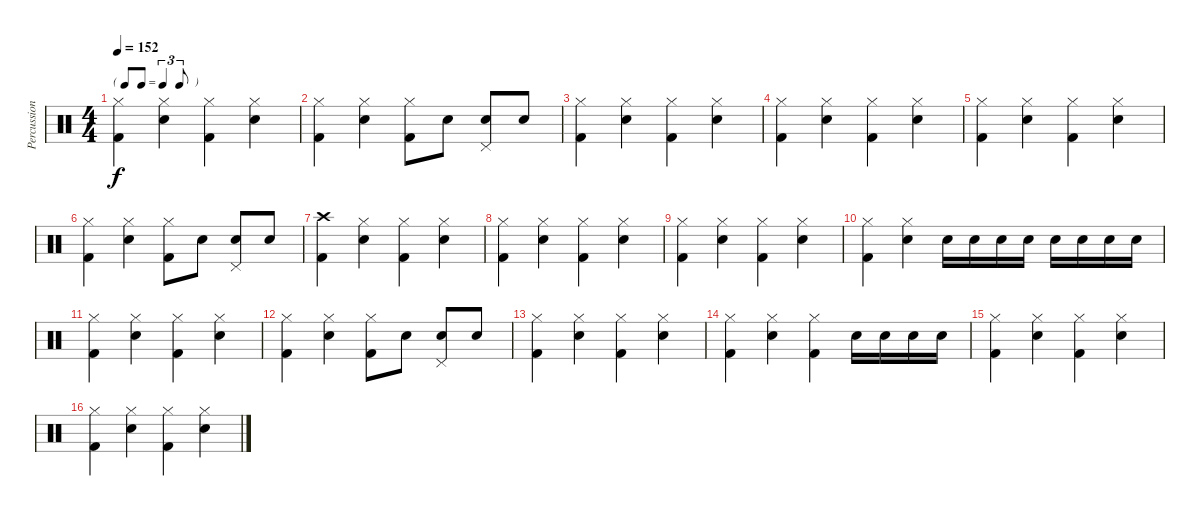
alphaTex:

\track ("Percussion" "Percussion") {instrument percussion}
\staff {score}
\articulation defaults
\ts (4 4)
\tf triplet8th
\tempo 152
\clef neutral
\ks c
("Hi-Hat (closed)" "Kick (hit) 2").4{dy f} ("Hi-Hat (closed)" "Snare (hit) 2").4 ("Hi-Hat (closed)" "Kick (hit) 2").4 ("Hi-Hat (closed)" "Snare (hit) 2").4 |
("Hi-Hat (closed)" "Kick (hit) 2").4 ("Hi-Hat (closed)" "Snare (hit) 2").4 ("Hi-Hat (closed)" "Kick (hit) 2").8 "Snare (hit) 2".8 ("Snare (hit) 2" "Pedal Hi-Hat (hit)").8 "Snare (hit) 2".8 |
("Hi-Hat (closed)" "Kick (hit) 2").4 ("Hi-Hat (closed)" "Snare (hit) 2").4 ("Hi-Hat (closed)" "Kick (hit) 2").4 ("Hi-Hat (closed)" "Snare (hit) 2").4 |
("Hi-Hat (closed)" "Kick (hit) 2").4 ("Hi-Hat (closed)" "Snare (hit) 2").4 ("Hi-Hat (closed)" "Kick (hit) 2").4 ("Hi-Hat (closed)" "Snare (hit) 2").4 |
("Hi-Hat (closed)" "Kick (hit) 2").4 ("Hi-Hat (closed)" "Snare (hit) 2").4 ("Hi-Hat (closed)" "Kick (hit) 2").4 ("Hi-Hat (closed)" "Snare (hit) 2").4 |
("Hi-Hat (closed)" "Kick (hit) 2").4 ("Hi-Hat (closed)" "Snare (hit) 2").4 ("Hi-Hat (closed)" "Kick (hit) 2").8 "Snare (hit) 2".8 ("Snare (hit) 2" "Pedal Hi-Hat (hit)").8 "Snare (hit) 2".8 |
("Crash high (hit)" "Kick (hit) 2").4 ("Hi-Hat (closed)" "Snare (hit) 2").4 ("Hi-Hat (closed)" "Kick (hit) 2").4 ("Hi-Hat (closed)" "Snare (hit) 2").4 |
("Hi-Hat (closed)" "Kick (hit) 2").4 ("Hi-Hat (closed)" "Snare (hit) 2").4 ("Hi-Hat (closed)" "Kick (hit) 2").4 ("Hi-Hat (closed)" "Snare (hit) 2").4 |
("Hi-Hat (closed)" "Kick (hit) 2").4 ("Hi-Hat (closed)" "Snare (hit) 2").4 ("Hi-Hat (closed)" "Kick (hit) 2").4 ("Hi-Hat (closed)" "Snare (hit) 2").4 |
("Hi-Hat (closed)" "Kick (hit) 2").4 ("Hi-Hat (closed)" "Snare (hit) 2").4 "Snare (hit) 2".16 "Snare (hit) 2".16 "Snare (hit) 2".16 "Snare (hit) 2".16 "Snare (hit) 2".16 "Snare (hit) 2".16 "Snare (hit) 2".16 "Snare (hit) 2".16 |
("Hi-Hat (closed)" "Kick (hit) 2").4 ("Hi-Hat (closed)" "Snare (hit) 2").4 ("Hi-Hat (closed)" "Kick (hit) 2").4 ("Hi-Hat (closed)" "Snare (hit) 2").4 |
("Hi-Hat (closed)" "Kick (hit) 2").4 ("Hi-Hat (closed)" "Snare (hit) 2").4 ("Hi-Hat (closed)" "Kick (hit) 2").8 "Snare (hit) 2".8 ("Snare (hit) 2" "Pedal Hi-Hat (hit)").8 "Snare (hit) 2".8 |
("Hi-Hat (closed)" "Kick (hit) 2").4 ("Hi-Hat (closed)" "Snare (hit) 2").4 ("Hi-Hat (closed)" "Kick (hit) 2").4 ("Hi-Hat (closed)" "Snare (hit) 2").4 |
("Hi-Hat (closed)" "Kick (hit) 2").4 ("Hi-Hat (closed)" "Snare (hit) 2").4 ("Hi-Hat (closed)" "Kick (hit) 2").4 "Snare (hit) 2".16 "Snare (hit) 2".16 "Snare (hit) 2".16 "Snare (hit) 2".16 |
("Hi-Hat (closed)" "Kick (hit) 2").4 ("Hi-Hat (closed)" "Snare (hit) 2").4 ("Hi-Hat (closed)" "Kick (hit) 2").4 ("Hi-Hat (closed)" "Snare (hit) 2").4 |
("Hi-Hat (closed)" "Kick (hit) 2").4 ("Hi-Hat (closed)" "Snare (hit) 2").4 ("Hi-Hat (closed)" "Kick (hit) 2").4 ("Hi-Hat (closed)" "Snare (hit) 2").4
